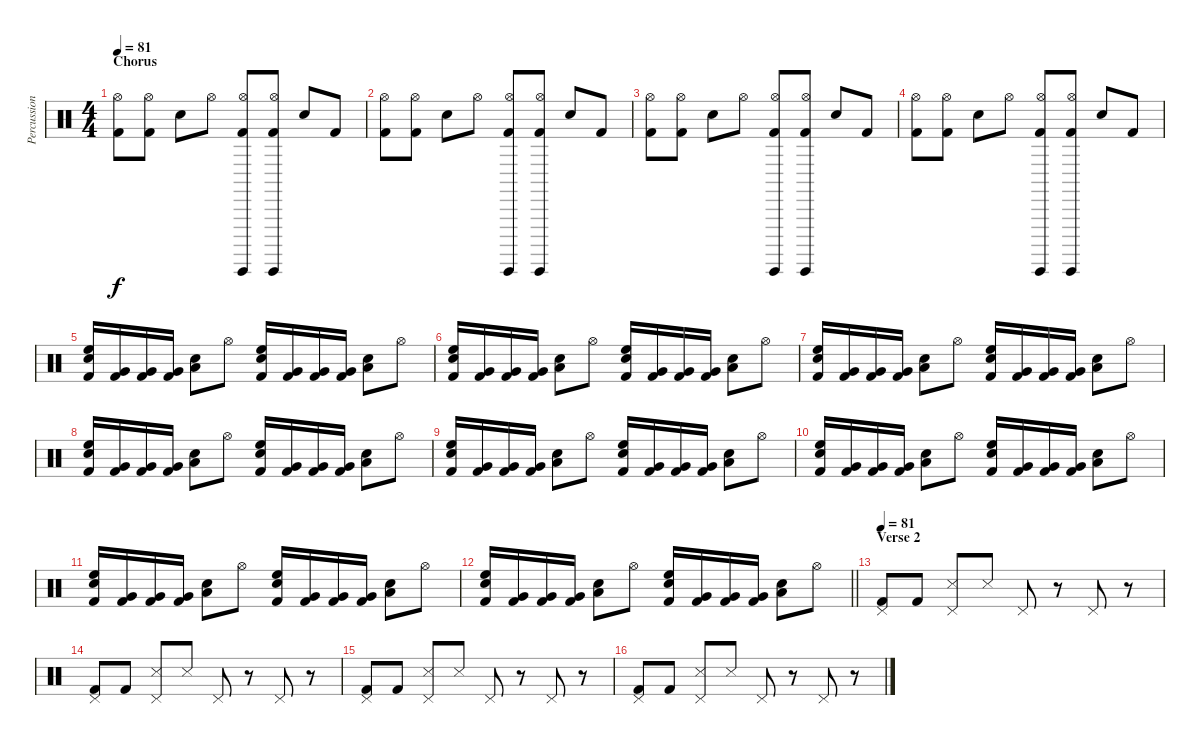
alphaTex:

\track ("Percussion" "Percussion") {instrument percussion}
\staff {score}
\articulation defaults
\ts (4 4)
\section ("" "Chorus")
\tempo 81
\clef neutral
\ks c
("Hi-Hat (open)" "Kick (hit) 2").8{dy f} ("Hi-Hat (open)" "Kick (hit) 2").8 "Electric Snare (hit)".8 "Hi-Hat (open)".8 ("Guiro (hit)" "Hi-Hat (open)" "Kick (hit) 2").8 ("Guiro (hit)" "Hi-Hat (open)" "Kick (hit) 2").8 "Electric Snare (hit)".8 "Kick (hit) 2".8 |
("Hi-Hat (open)" "Kick (hit) 2").8 ("Hi-Hat (open)" "Kick (hit) 2").8 "Electric Snare (hit)".8 "Hi-Hat (open)".8 ("Guiro (hit)" "Hi-Hat (open)" "Kick (hit) 2").8 ("Guiro (hit)" "Hi-Hat (open)" "Kick (hit) 2").8 "Electric Snare (hit)".8 "Kick (hit) 2".8 |
("Hi-Hat (open)" "Kick (hit) 2").8 ("Hi-Hat (open)" "Kick (hit) 2").8 "Electric Snare (hit)".8 "Hi-Hat (open)".8 ("Guiro (hit)" "Hi-Hat (open)" "Kick (hit) 2").8 ("Guiro (hit)" "Hi-Hat (open)" "Kick (hit) 2").8 "Electric Snare (hit)".8 "Kick (hit) 2".8 |
("Hi-Hat (open)" "Kick (hit) 2").8 ("Hi-Hat (open)" "Kick (hit) 2").8 "Electric Snare (hit)".8 "Hi-Hat (open)".8 ("Guiro (hit)" "Hi-Hat (open)" "Kick (hit) 2").8 ("Guiro (hit)" "Hi-Hat (open)" "Kick (hit) 2").8 "Electric Snare (hit)".8 "Kick (hit) 2".8 |
("High Floor Tom (hit)" "Snare (hit) 2" "Kick (hit) 2").16 ("Very Low Tom (hit)" "Kick (hit) 2").16 ("Very Low Tom (hit)" "Kick (hit) 2").16 ("Very Low Tom (hit)" "Kick (hit) 2").16 ("Low Tom (hit)" "Electric Snare (hit)").8 "Hi-Hat (open)".8 ("High Floor Tom (hit)" "Snare (hit) 2" "Kick (hit) 2").16 ("Very Low Tom (hit)" "Kick (hit) 2").16 ("Very Low Tom (hit)" "Kick (hit) 2").16 ("Very Low Tom (hit)" "Kick (hit) 2").16 ("Low Tom (hit)" "Electric Snare (hit)").8 "Hi-Hat (open)".8 |
("High Floor Tom (hit)" "Snare (hit) 2" "Kick (hit) 2").16 ("Very Low Tom (hit)" "Kick (hit) 2").16 ("Very Low Tom (hit)" "Kick (hit) 2").16 ("Very Low Tom (hit)" "Kick (hit) 2").16 ("Low Tom (hit)" "Electric Snare (hit)").8 "Hi-Hat (open)".8 ("High Floor Tom (hit)" "Snare (hit) 2" "Kick (hit) 2").16 ("Very Low Tom (hit)" "Kick (hit) 2").16 ("Very Low Tom (hit)" "Kick (hit) 2").16 ("Very Low Tom (hit)" "Kick (hit) 2").16 ("Low Tom (hit)" "Electric Snare (hit)").8 "Hi-Hat (open)".8 |
("High Floor Tom (hit)" "Snare (hit) 2" "Kick (hit) 2").16 ("Very Low Tom (hit)" "Kick (hit) 2").16 ("Very Low Tom (hit)" "Kick (hit) 2").16 ("Very Low Tom (hit)" "Kick (hit) 2").16 ("Low Tom (hit)" "Electric Snare (hit)").8 "Hi-Hat (open)".8 ("High Floor Tom (hit)" "Snare (hit) 2" "Kick (hit) 2").16 ("Very Low Tom (hit)" "Kick (hit) 2").16 ("Very Low Tom (hit)" "Kick (hit) 2").16 ("Very Low Tom (hit)" "Kick (hit) 2").16 ("Low Tom (hit)" "Electric Snare (hit)").8 "Hi-Hat (open)".8 |
("High Floor Tom (hit)" "Snare (hit) 2" "Kick (hit) 2").16 ("Very Low Tom (hit)" "Kick (hit) 2").16 ("Very Low Tom (hit)" "Kick (hit) 2").16 ("Very Low Tom (hit)" "Kick (hit) 2").16 ("Low Tom (hit)" "Electric Snare (hit)").8 "Hi-Hat (open)".8 ("High Floor Tom (hit)" "Snare (hit) 2" "Kick (hit) 2").16 ("Very Low Tom (hit)" "Kick (hit) 2").16 ("Very Low Tom (hit)" "Kick (hit) 2").16 ("Very Low Tom (hit)" "Kick (hit) 2").16 ("Low Tom (hit)" "Electric Snare (hit)").8 "Hi-Hat (open)".8 |
("High Floor Tom (hit)" "Snare (hit) 2" "Kick (hit) 2").16 ("Very Low Tom (hit)" "Kick (hit) 2").16 ("Very Low Tom (hit)" "Kick (hit) 2").16 ("Very Low Tom (hit)" "Kick (hit) 2").16 ("Low Tom (hit)" "Electric Snare (hit)").8 "Hi-Hat (open)".8 ("High Floor Tom (hit)" "Snare (hit) 2" "Kick (hit) 2").16 ("Very Low Tom (hit)" "Kick (hit) 2").16 ("Very Low Tom (hit)" "Kick (hit) 2").16 ("Very Low Tom (hit)" "Kick (hit) 2").16 ("Low Tom (hit)" "Electric Snare (hit)").8 "Hi-Hat (open)".8 |
("High Floor Tom (hit)" "Snare (hit) 2" "Kick (hit) 2").16 ("Very Low Tom (hit)" "Kick (hit) 2").16 ("Very Low Tom (hit)" "Kick (hit) 2").16 ("Very Low Tom (hit)" "Kick (hit) 2").16 ("Low Tom (hit)" "Electric Snare (hit)").8 "Hi-Hat (open)".8 ("High Floor Tom (hit)" "Snare (hit) 2" "Kick (hit) 2").16 ("Very Low Tom (hit)" "Kick (hit) 2").16 ("Very Low Tom (hit)" "Kick (hit) 2").16 ("Very Low Tom (hit)" "Kick (hit) 2").16 ("Low Tom (hit)" "Electric Snare (hit)").8 "Hi-Hat (open)".8 |
("High Floor Tom (hit)" "Snare (hit) 2" "Kick (hit) 2").16 ("Very Low Tom (hit)" "Kick (hit) 2").16 ("Very Low Tom (hit)" "Kick (hit) 2").16 ("Very Low Tom (hit)" "Kick (hit) 2").16 ("Low Tom (hit)" "Electric Snare (hit)").8 "Hi-Hat (open)".8 ("High Floor Tom (hit)" "Snare (hit) 2" "Kick (hit) 2").16 ("Very Low Tom (hit)" "Kick (hit) 2").16 ("Very Low Tom (hit)" "Kick (hit) 2").16 ("Very Low Tom (hit)" "Kick (hit) 2").16 ("Low Tom (hit)" "Electric Snare (hit)").8 "Hi-Hat (open)".8 |
\barLineRight lightlight
("High Floor Tom (hit)" "Snare (hit) 2" "Kick (hit) 2").16 ("Very Low Tom (hit)" "Kick (hit) 2").16 ("Very Low Tom (hit)" "Kick (hit) 2").16 ("Very Low Tom (hit)" "Kick (hit) 2").16 ("Low Tom (hit)" "Electric Snare (hit)").8 "Hi-Hat (open)".8 ("High Floor Tom (hit)" "Snare (hit) 2" "Kick (hit) 2").16 ("Very Low Tom (hit)" "Kick (hit) 2").16 ("Very Low Tom (hit)" "Kick (hit) 2").16 ("Very Low Tom (hit)" "Kick (hit) 2").16 ("Low Tom (hit)" "Electric Snare (hit)").8 "Hi-Hat (open)".8 |
\section ("" "Verse 2")
\tempo 81
("Pedal Hi-Hat (hit)" "Kick (hit) 2").8 "Kick (hit) 2".8 ("Pedal Hi-Hat (hit)" "Snare (side stick) 3").8 "Snare (side stick) 3".8 "Pedal Hi-Hat (hit)".8 r.8 "Pedal Hi-Hat (hit)".8 r.8 |
("Pedal Hi-Hat (hit)" "Kick (hit) 2").8 "Kick (hit) 2".8 ("Pedal Hi-Hat (hit)" "Snare (side stick) 3").8 "Snare (side stick) 3".8 "Pedal Hi-Hat (hit)".8 r.8 "Pedal Hi-Hat (hit)".8 r.8 |
("Pedal Hi-Hat (hit)" "Kick (hit) 2").8 "Kick (hit) 2".8 ("Pedal Hi-Hat (hit)" "Snare (side stick) 3").8 "Snare (side stick) 3".8 "Pedal Hi-Hat (hit)".8 r.8 "Pedal Hi-Hat (hit)".8 r.8 |
("Pedal Hi-Hat (hit)" "Kick (hit) 2").8 "Kick (hit) 2".8 ("Pedal Hi-Hat (hit)" "Snare (side stick) 3").8 "Snare (side stick) 3".8 "Pedal Hi-Hat (hit)".8 r.8 "Pedal Hi-Hat (hit)".8 r.8
